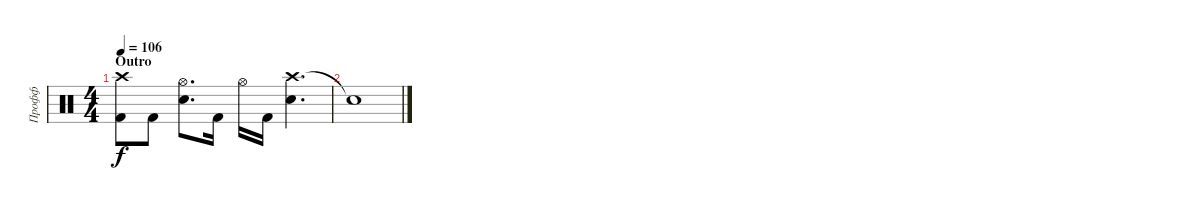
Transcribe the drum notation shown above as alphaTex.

\track ("Профф" "Профф") {instrument percussion}
\staff {score}
\articulation defaults
\ts (4 4)
\section ("" "Outro")
\tempo 106
\clef neutral
\ks c
("Crash high (hit)" "Kick (hit) 2").8{dy f} "Kick (hit) 2".8 ("Hi-Hat (open)" "Snare (hit) 2").8{d} "Kick (hit) 2".16 "Hi-Hat (open)".16 "Kick (hit) 2".16 ("Crash high (hit)" "Snare (hit) 2").4{d} |
"Snare (hit)"{t}.1
